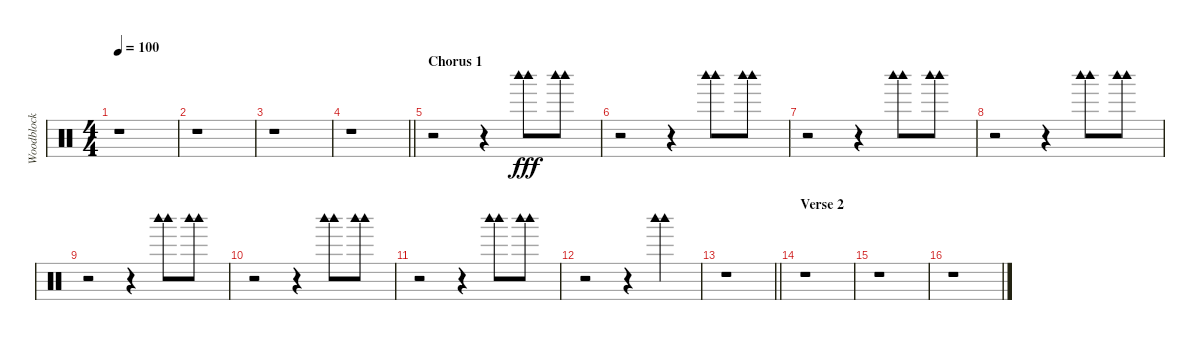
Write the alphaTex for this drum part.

\track ("Woodblock" "Woodblock") {instrument percussion}
\staff {score}
\articulation defaults
\ts (4 4)
\tempo 100
\clef neutral
\ks c
r.1{dy fff} |
r.1 |
r.1 |
\barLineRight lightlight
r.1 |
\section ("" "Chorus 1")
r.2 r.4 ("Woodblock high (hit)" "Woodblock high (hit)").8 ("Woodblock high (hit)" "Woodblock high (hit)").8 |
r.2 r.4 ("Woodblock high (hit)" "Woodblock high (hit)").8 ("Woodblock high (hit)" "Woodblock high (hit)").8 |
r.2 r.4 ("Woodblock high (hit)" "Woodblock high (hit)").8 ("Woodblock high (hit)" "Woodblock high (hit)").8 |
r.2 r.4 ("Woodblock high (hit)" "Woodblock high (hit)").8 ("Woodblock high (hit)" "Woodblock high (hit)").8 |
r.2 r.4 ("Woodblock high (hit)" "Woodblock high (hit)").8 ("Woodblock high (hit)" "Woodblock high (hit)").8 |
r.2 r.4 ("Woodblock high (hit)" "Woodblock high (hit)").8 ("Woodblock high (hit)" "Woodblock high (hit)").8 |
r.2 r.4 ("Woodblock high (hit)" "Woodblock high (hit)").8 ("Woodblock high (hit)" "Woodblock high (hit)").8 |
r.2 r.4 ("Woodblock high (hit)" "Woodblock high (hit)").4 |
\barLineRight lightlight
r.1 |
\section ("" "Verse 2")
r.1 |
r.1 |
r.1
